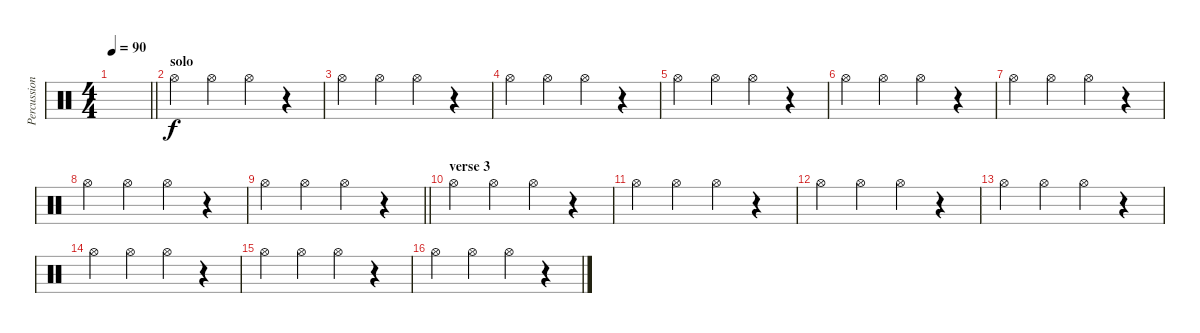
\track ("Percussion" "Percussion") {instrument percussion}
\staff {score}
\articulation defaults
\ts (4 4)
\tempo 90
\clef neutral
\barLineRight lightlight
\ks c
|
\section ("" "solo")
"Hi-Hat (open)".4 "Hi-Hat (open)".4 "Hi-Hat (open)".4 r.4 |
"Hi-Hat (open)".4 "Hi-Hat (open)".4 "Hi-Hat (open)".4 r.4 |
"Hi-Hat (open)".4 "Hi-Hat (open)".4 "Hi-Hat (open)".4 r.4 |
"Hi-Hat (open)".4 "Hi-Hat (open)".4 "Hi-Hat (open)".4 r.4 |
"Hi-Hat (open)".4 "Hi-Hat (open)".4 "Hi-Hat (open)".4 r.4 |
"Hi-Hat (open)".4 "Hi-Hat (open)".4 "Hi-Hat (open)".4 r.4 |
"Hi-Hat (open)".4 "Hi-Hat (open)".4 "Hi-Hat (open)".4 r.4 |
\barLineRight lightlight "Hi-Hat (open)".4 "Hi-Hat (open)".4 "Hi-Hat (open)".4
r.4 |
\section ("" "verse 3")
"Hi-Hat (open)".4 "Hi-Hat (open)".4 "Hi-Hat (open)".4 r.4 |
"Hi-Hat (open)".4 "Hi-Hat (open)".4 "Hi-Hat (open)".4 r.4 |
"Hi-Hat (open)".4 "Hi-Hat (open)".4 "Hi-Hat (open)".4 r.4 |
"Hi-Hat (open)".4 "Hi-Hat (open)".4 "Hi-Hat (open)".4 r.4 |
"Hi-Hat (open)".4 "Hi-Hat (open)".4 "Hi-Hat (open)".4 r.4 |
"Hi-Hat (open)".4 "Hi-Hat (open)".4 "Hi-Hat (open)".4 r.4 |
"Hi-Hat (open)".4 "Hi-Hat (open)".4 "Hi-Hat (open)".4 r.4
